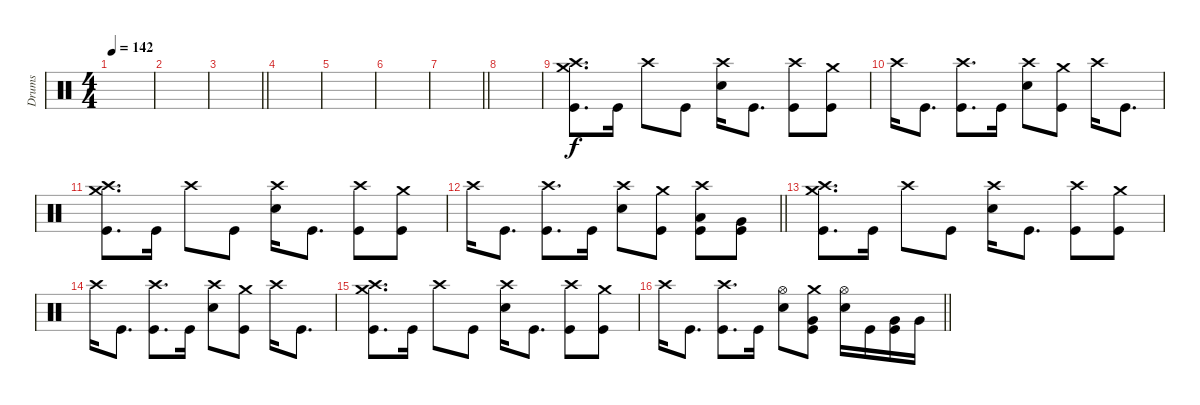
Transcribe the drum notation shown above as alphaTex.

\track ("Drums" "Drums") {instrument percussion}
\staff
\articulation defaults
\ts (4 4)
\tempo 142
\clef neutral
\ks c
|
|
\barLineRight lightlight
|
|
|
|
\barLineRight lightlight
|
|
("Crash high (hit)" "Crash medium (hit)" "Kick (hit)").8{d} "Kick (hit)".16 "Crash high (hit)".8 "Kick (hit)".8 ("Crash high (hit)" "Electric Snare (hit)").16 "Kick (hit)".8{d} ("Crash high (hit)" "Kick (hit)").8 ("Crash medium (hit)" "Kick (hit)").8 |
"Crash high (hit)".16 "Kick (hit)".8{d} ("Crash high (hit)" "Kick (hit)").8{d} "Kick (hit)".16 ("Crash high (hit)" "Electric Snare (hit)").8 ("Crash medium (hit)" "Kick (hit)").8 "Crash high (hit)".16 "Kick (hit)".8{d} |
("Crash high (hit)" "Crash medium (hit)" "Kick (hit)").8{d} "Kick (hit)".16 "Crash high (hit)".8 "Kick (hit)".8 ("Crash high (hit)" "Electric Snare (hit)").16 "Kick (hit)".8{d} ("Crash high (hit)" "Kick (hit)").8 ("Crash medium (hit)" "Kick (hit)").8 |
\barLineRight lightlight "Crash high (hit)".16 "Kick (hit)".8{d}
("Crash high (hit)" "Kick (hit)").8{d} "Kick (hit)".16 ("Crash high (hit)" "Electric Snare (hit)").8 ("Crash medium (hit)" "Kick (hit)").8 ("Crash high (hit)" "Low Tom (hit)" "Kick (hit)").8 ("Very Low Tom (hit)" "Kick (hit)").8 |
("Crash high (hit)" "Crash medium (hit)" "Kick (hit)").8{d} "Kick (hit)".16 "Crash high (hit)".8 "Kick (hit)".8 ("Crash high (hit)" "Electric Snare (hit)").16 "Kick (hit)".8{d} ("Crash high (hit)" "Kick (hit)").8 ("Crash medium (hit)" "Kick (hit)").8 |
"Crash high (hit)".16 "Kick (hit)".8{d} ("Crash high (hit)" "Kick (hit)").8{d} "Kick (hit)".16 ("Crash high (hit)" "Electric Snare (hit)").8 ("Crash medium (hit)" "Kick (hit)").8 "Crash high (hit)".16 "Kick (hit)".8{d} |
("Crash high (hit)" "Crash medium (hit)" "Kick (hit)").8{d} "Kick (hit)".16 "Crash high (hit)".8 "Kick (hit)".8 ("Crash high (hit)" "Electric Snare (hit)").16 "Kick (hit)".8{d} ("Crash high (hit)" "Kick (hit)").8 ("Crash medium (hit)" "Kick (hit)").8 |
\barLineRight lightlight "Crash high (hit)".16 "Kick (hit)".8{d}
("Crash high (hit)" "Kick (hit)").8{d} "Kick (hit)".16 ("Hi-Hat (open)" "Electric Snare (hit)").8 ("Crash medium (hit)" "Very Low Tom (hit)" "Kick (hit)").8 ("Hi-Hat (open)" "Electric Snare (hit)").16 "Kick (hit)".16 ("Very Low Tom (hit)" "Kick (hit)").16 "Very Low Tom (hit)".16
